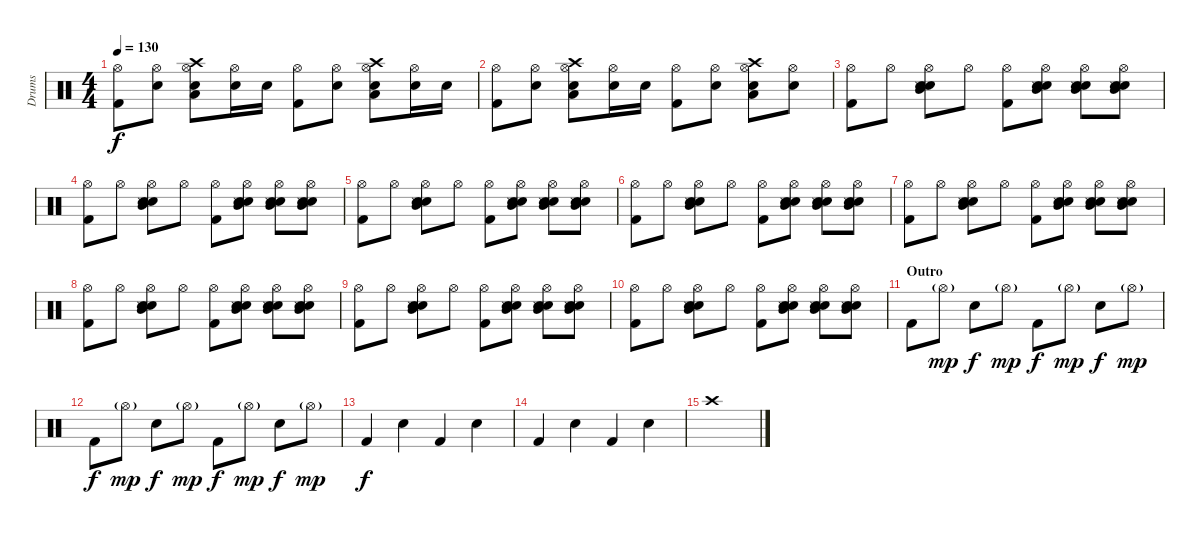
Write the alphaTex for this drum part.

\track ("Drums" "Drums") {instrument percussion}
\staff {score}
\articulation defaults
\ts (4 4)
\tempo 130
\clef neutral
\ks c
("Hi-Hat (open)" "Kick (hit) 2").8{dy f} ("Hi-Hat (open)" "Electric Snare (hit)").8 ("Crash high (hit)" "Hi-Hat (open)" "Electric Snare (hit)" "Low Floor Tom (hit)").8 ("Hi-Hat (open)" "Electric Snare (hit)").16 "Electric Snare (hit)".16 ("Hi-Hat (open)" "Kick (hit) 2").8 ("Hi-Hat (open)" "Electric Snare (hit)").8 ("Crash high (hit)" "Hi-Hat (open)" "Electric Snare (hit)" "Low Floor Tom (hit)").8 ("Hi-Hat (open)" "Electric Snare (hit)").16 "Electric Snare (hit)".16 |
("Hi-Hat (open)" "Kick (hit) 2").8 ("Hi-Hat (open)" "Electric Snare (hit)").8 ("Crash high (hit)" "Hi-Hat (open)" "Electric Snare (hit)" "Low Floor Tom (hit)").8 ("Hi-Hat (open)" "Electric Snare (hit)").16 "Electric Snare (hit)".16 ("Hi-Hat (open)" "Kick (hit) 2").8 ("Hi-Hat (open)" "Electric Snare (hit)").8 ("Crash high (hit)" "Hi-Hat (open)" "Electric Snare (hit)" "Low Floor Tom (hit)").8 ("Hi-Hat (open)" "Electric Snare (hit)").8 |
("Hi-Hat (open)" "Kick (hit) 2").8 "Hi-Hat (open)".8 ("Hand Clap (hit)" "Snare (side stick) 3" "Electric Snare (hit)" "Mid Tom (hit)" "Hi-Hat (open)").8 "Hi-Hat (open)".8 ("Hi-Hat (open)" "Kick (hit) 2").8 ("Hand Clap (hit)" "Snare (side stick) 3" "Electric Snare (hit)" "Mid Tom (hit)" "Hi-Hat (open)").8 ("Hand Clap (hit)" "Snare (side stick) 3" "Electric Snare (hit)" "Mid Tom (hit)" "Hi-Hat (open)").8 ("Hand Clap (hit)" "Snare (side stick) 3" "Electric Snare (hit)" "Mid Tom (hit)" "Hi-Hat (open)").8 |
("Hi-Hat (open)" "Kick (hit) 2").8 "Hi-Hat (open)".8 ("Hand Clap (hit)" "Snare (side stick) 3" "Electric Snare (hit)" "Mid Tom (hit)" "Hi-Hat (open)").8 "Hi-Hat (open)".8 ("Hi-Hat (open)" "Kick (hit) 2").8 ("Hand Clap (hit)" "Snare (side stick) 3" "Electric Snare (hit)" "Mid Tom (hit)" "Hi-Hat (open)").8 ("Hand Clap (hit)" "Snare (side stick) 3" "Electric Snare (hit)" "Mid Tom (hit)" "Hi-Hat (open)").8 ("Hand Clap (hit)" "Snare (side stick) 3" "Electric Snare (hit)" "Mid Tom (hit)" "Hi-Hat (open)").8 |
("Hi-Hat (open)" "Kick (hit) 2").8 "Hi-Hat (open)".8 ("Hand Clap (hit)" "Snare (side stick) 3" "Electric Snare (hit)" "Mid Tom (hit)" "Hi-Hat (open)").8 "Hi-Hat (open)".8 ("Hi-Hat (open)" "Kick (hit) 2").8 ("Hand Clap (hit)" "Snare (side stick) 3" "Electric Snare (hit)" "Mid Tom (hit)" "Hi-Hat (open)").8 ("Hand Clap (hit)" "Snare (side stick) 3" "Electric Snare (hit)" "Mid Tom (hit)" "Hi-Hat (open)").8 ("Hand Clap (hit)" "Snare (side stick) 3" "Electric Snare (hit)" "Mid Tom (hit)" "Hi-Hat (open)").8 |
("Hi-Hat (open)" "Kick (hit) 2").8 "Hi-Hat (open)".8 ("Hand Clap (hit)" "Snare (side stick) 3" "Electric Snare (hit)" "Mid Tom (hit)" "Hi-Hat (open)").8 "Hi-Hat (open)".8 ("Hi-Hat (open)" "Kick (hit) 2").8 ("Hand Clap (hit)" "Snare (side stick) 3" "Electric Snare (hit)" "Mid Tom (hit)" "Hi-Hat (open)").8 ("Hand Clap (hit)" "Snare (side stick) 3" "Electric Snare (hit)" "Mid Tom (hit)" "Hi-Hat (open)").8 ("Hand Clap (hit)" "Snare (side stick) 3" "Electric Snare (hit)" "Mid Tom (hit)" "Hi-Hat (open)").8 |
("Hi-Hat (open)" "Kick (hit) 2").8 "Hi-Hat (open)".8 ("Hand Clap (hit)" "Snare (side stick) 3" "Electric Snare (hit)" "Mid Tom (hit)" "Hi-Hat (open)").8 "Hi-Hat (open)".8 ("Hi-Hat (open)" "Kick (hit) 2").8 ("Hand Clap (hit)" "Snare (side stick) 3" "Electric Snare (hit)" "Mid Tom (hit)" "Hi-Hat (open)").8 ("Hand Clap (hit)" "Snare (side stick) 3" "Electric Snare (hit)" "Mid Tom (hit)" "Hi-Hat (open)").8 ("Hand Clap (hit)" "Snare (side stick) 3" "Electric Snare (hit)" "Mid Tom (hit)" "Hi-Hat (open)").8 |
("Hi-Hat (open)" "Kick (hit) 2").8 "Hi-Hat (open)".8 ("Hand Clap (hit)" "Snare (side stick) 3" "Electric Snare (hit)" "Mid Tom (hit)" "Hi-Hat (open)").8 "Hi-Hat (open)".8 ("Hi-Hat (open)" "Kick (hit) 2").8 ("Hand Clap (hit)" "Snare (side stick) 3" "Electric Snare (hit)" "Mid Tom (hit)" "Hi-Hat (open)").8 ("Hand Clap (hit)" "Snare (side stick) 3" "Electric Snare (hit)" "Mid Tom (hit)" "Hi-Hat (open)").8 ("Hand Clap (hit)" "Snare (side stick) 3" "Electric Snare (hit)" "Mid Tom (hit)" "Hi-Hat (open)").8 |
("Hi-Hat (open)" "Kick (hit) 2").8 "Hi-Hat (open)".8 ("Hand Clap (hit)" "Snare (side stick) 3" "Electric Snare (hit)" "Mid Tom (hit)" "Hi-Hat (open)").8 "Hi-Hat (open)".8 ("Hi-Hat (open)" "Kick (hit) 2").8 ("Hand Clap (hit)" "Snare (side stick) 3" "Electric Snare (hit)" "Mid Tom (hit)" "Hi-Hat (open)").8 ("Hand Clap (hit)" "Snare (side stick) 3" "Electric Snare (hit)" "Mid Tom (hit)" "Hi-Hat (open)").8 ("Hand Clap (hit)" "Snare (side stick) 3" "Electric Snare (hit)" "Mid Tom (hit)" "Hi-Hat (open)").8 |
("Hi-Hat (open)" "Kick (hit) 2").8 "Hi-Hat (open)".8 ("Hand Clap (hit)" "Snare (side stick) 3" "Electric Snare (hit)" "Mid Tom (hit)" "Hi-Hat (open)").8 "Hi-Hat (open)".8 ("Hi-Hat (open)" "Kick (hit) 2").8 ("Hand Clap (hit)" "Snare (side stick) 3" "Electric Snare (hit)" "Mid Tom (hit)" "Hi-Hat (open)").8 ("Hand Clap (hit)" "Snare (side stick) 3" "Electric Snare (hit)" "Mid Tom (hit)" "Hi-Hat (open)").8 ("Hand Clap (hit)" "Snare (side stick) 3" "Electric Snare (hit)" "Mid Tom (hit)" "Hi-Hat (open)").8 |
\section ("" "Outro")
"Kick (hit) 2".8 "Hi-Hat (open)"{g}.8{dy mp} "Snare (hit) 2".8{dy f} "Hi-Hat (open)"{g}.8{dy mp} "Kick (hit) 2".8{dy f} "Hi-Hat (open)"{g}.8{dy mp} "Snare (hit) 2".8{dy f} "Hi-Hat (open)"{g}.8{dy mp} |
"Kick (hit) 2".8{dy f} "Hi-Hat (open)"{g}.8{dy mp} "Snare (hit) 2".8{dy f} "Hi-Hat (open)"{g}.8{dy mp} "Kick (hit) 2".8{dy f} "Hi-Hat (open)"{g}.8{dy mp} "Snare (hit) 2".8{dy f} "Hi-Hat (open)"{g}.8{dy mp} |
"Kick (hit) 2".4{dy f} "Snare (hit) 2".4 "Kick (hit) 2".4 "Snare (hit) 2".4 |
"Kick (hit) 2".4 "Snare (hit) 2".4 "Kick (hit) 2".4 "Snare (hit) 2".4 |
"Crash high (hit)".1
